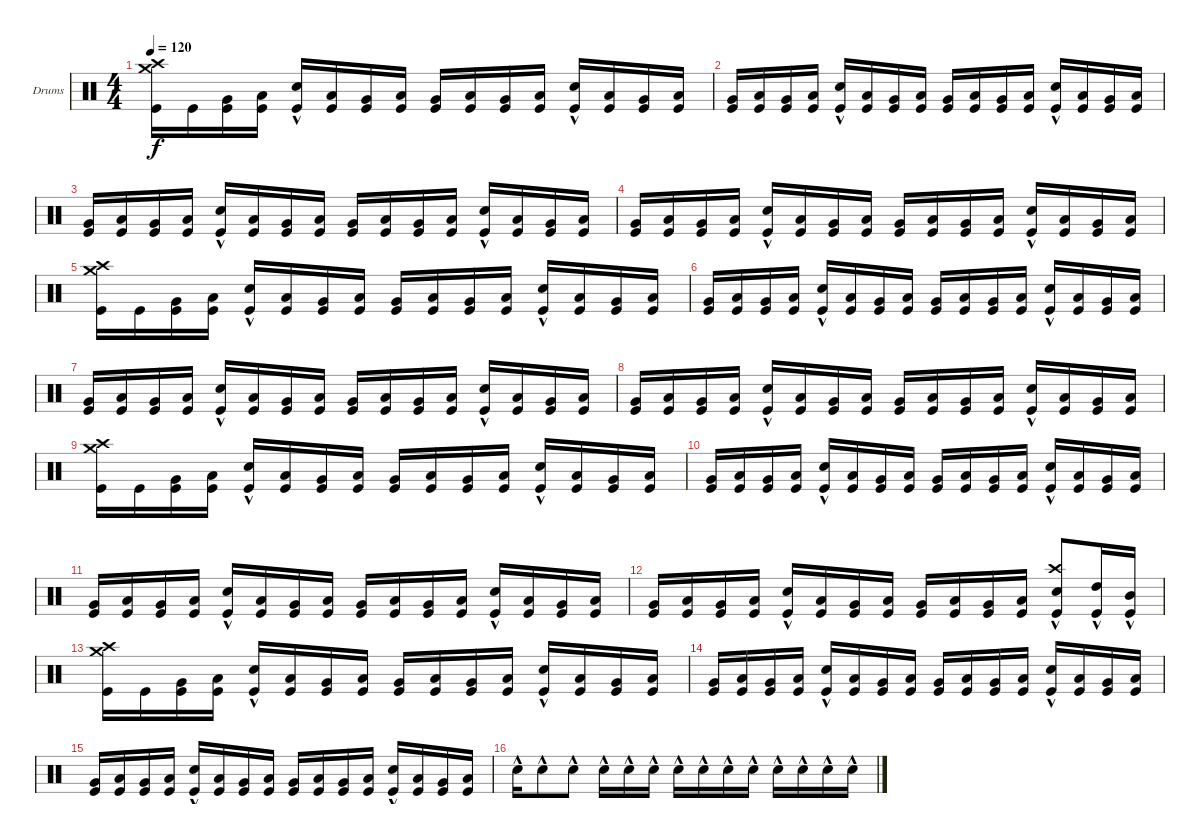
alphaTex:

\bracketExtendMode groupsimilarinstruments
\firstSystemTrackNameOrientation horizontal
\otherSystemsTrackNameOrientation horizontal
\track ("Drumkit" "Drums") {instrument percussion}
\staff {score}
\articulation defaults
\ts (4 4)
\tempo 120
\clef neutral
\scale
0.333333
\ks c
("Kick (hit)" "Crash medium (hit)" "Crash high (hit)").16{dy f} "Kick (hit)".16 ("Kick (hit)" "Very Low Tom (hit)").16 ("Kick (hit)" "Low Tom (hit)").16 ("Kick (hit)" "Snare (hit) 2"{hac}).16 ("Kick (hit)" "Low Tom (hit)").16 ("Kick (hit)" "Very Low Tom (hit)").16 ("Kick (hit)" "Low Tom (hit)").16 ("Kick (hit)" "Very Low Tom (hit)").16 ("Kick (hit)" "Low Tom (hit)").16 ("Kick (hit)" "Very Low Tom (hit)").16 ("Kick (hit)" "Low Tom (hit)").16 ("Kick (hit)" "Snare (hit) 2"{hac}).16 ("Kick (hit)" "Low Tom (hit)").16 ("Kick (hit)" "Very Low Tom (hit)").16 ("Kick (hit)" "Low Tom (hit)").16 |
\scale
0.333333 ("Kick (hit)" "Very Low Tom (hit)").16 ("Kick (hit)" "Low Tom (hit)").16 ("Kick (hit)" "Very Low Tom (hit)").16 ("Kick (hit)" "Low Tom (hit)").16 ("Kick (hit)" "Snare (hit) 2"{hac}).16 ("Kick (hit)" "Low Tom (hit)").16 ("Kick (hit)" "Very Low Tom (hit)").16 ("Kick (hit)" "Low Tom (hit)").16 ("Kick (hit)" "Very Low Tom (hit)").16 ("Kick (hit)" "Low Tom (hit)").16 ("Kick (hit)" "Very Low Tom (hit)").16 ("Kick (hit)" "Low Tom (hit)").16 ("Kick (hit)" "Snare (hit) 2"{hac}).16 ("Kick (hit)" "Low Tom (hit)").16 ("Kick (hit)" "Very Low Tom (hit)").16 ("Kick (hit)" "Low Tom (hit)").16 |
\scale
0.333333 ("Kick (hit)" "Very Low Tom (hit)").16 ("Kick (hit)" "Low Tom (hit)").16 ("Kick (hit)" "Very Low Tom (hit)").16 ("Kick (hit)" "Low Tom (hit)").16 ("Kick (hit)" "Snare (hit) 2"{hac}).16 ("Kick (hit)" "Low Tom (hit)").16 ("Kick (hit)" "Very Low Tom (hit)").16 ("Kick (hit)" "Low Tom (hit)").16 ("Kick (hit)" "Very Low Tom (hit)").16 ("Kick (hit)" "Low Tom (hit)").16 ("Kick (hit)" "Very Low Tom (hit)").16 ("Kick (hit)" "Low Tom (hit)").16 ("Kick (hit)" "Snare (hit) 2"{hac}).16 ("Kick (hit)" "Low Tom (hit)").16 ("Kick (hit)" "Very Low Tom (hit)").16 ("Kick (hit)" "Low Tom (hit)").16 |
\scale
0.333333 ("Kick (hit)" "Very Low Tom (hit)").16 ("Kick (hit)" "Low Tom (hit)").16 ("Kick (hit)" "Very Low Tom (hit)").16 ("Kick (hit)" "Low Tom (hit)").16 ("Kick (hit)" "Snare (hit) 2"{hac}).16 ("Kick (hit)" "Low Tom (hit)").16 ("Kick (hit)" "Very Low Tom (hit)").16 ("Kick (hit)" "Low Tom (hit)").16 ("Kick (hit)" "Very Low Tom (hit)").16 ("Kick (hit)" "Low Tom (hit)").16 ("Kick (hit)" "Very Low Tom (hit)").16 ("Kick (hit)" "Low Tom (hit)").16 ("Kick (hit)" "Snare (hit) 2"{hac}).16 ("Kick (hit)" "Low Tom (hit)").16 ("Kick (hit)" "Very Low Tom (hit)").16 ("Kick (hit)" "Low Tom (hit)").16 |
\scale
0.333333 ("Kick (hit)" "Crash medium (hit)" "Crash high (hit)").16 "Kick (hit)".16 ("Kick (hit)" "Very Low Tom (hit)").16 ("Kick (hit)" "Low Tom (hit)").16 ("Kick (hit)" "Snare (hit) 2"{hac}).16 ("Kick (hit)" "Low Tom (hit)").16 ("Kick (hit)" "Very Low Tom (hit)").16 ("Kick (hit)" "Low Tom (hit)").16 ("Kick (hit)" "Very Low Tom (hit)").16 ("Kick (hit)" "Low Tom (hit)").16 ("Kick (hit)" "Very Low Tom (hit)").16 ("Kick (hit)" "Low Tom (hit)").16 ("Kick (hit)" "Snare (hit) 2"{hac}).16 ("Kick (hit)" "Low Tom (hit)").16 ("Kick (hit)" "Very Low Tom (hit)").16 ("Kick (hit)" "Low Tom (hit)").16 |
\scale
0.333333 ("Kick (hit)" "Very Low Tom (hit)").16 ("Kick (hit)" "Low Tom (hit)").16 ("Kick (hit)" "Very Low Tom (hit)").16 ("Kick (hit)" "Low Tom (hit)").16 ("Kick (hit)" "Snare (hit) 2"{hac}).16 ("Kick (hit)" "Low Tom (hit)").16 ("Kick (hit)" "Very Low Tom (hit)").16 ("Kick (hit)" "Low Tom (hit)").16 ("Kick (hit)" "Very Low Tom (hit)").16 ("Kick (hit)" "Low Tom (hit)").16 ("Kick (hit)" "Very Low Tom (hit)").16 ("Kick (hit)" "Low Tom (hit)").16 ("Kick (hit)" "Snare (hit) 2"{hac}).16 ("Kick (hit)" "Low Tom (hit)").16 ("Kick (hit)" "Very Low Tom (hit)").16 ("Kick (hit)" "Low Tom (hit)").16 |
\scale
0.333333 ("Kick (hit)" "Very Low Tom (hit)").16 ("Kick (hit)" "Low Tom (hit)").16 ("Kick (hit)" "Very Low Tom (hit)").16 ("Kick (hit)" "Low Tom (hit)").16 ("Kick (hit)" "Snare (hit) 2"{hac}).16 ("Kick (hit)" "Low Tom (hit)").16 ("Kick (hit)" "Very Low Tom (hit)").16 ("Kick (hit)" "Low Tom (hit)").16 ("Kick (hit)" "Very Low Tom (hit)").16 ("Kick (hit)" "Low Tom (hit)").16 ("Kick (hit)" "Very Low Tom (hit)").16 ("Kick (hit)" "Low Tom (hit)").16 ("Kick (hit)" "Snare (hit) 2"{hac}).16 ("Kick (hit)" "Low Tom (hit)").16 ("Kick (hit)" "Very Low Tom (hit)").16 ("Kick (hit)" "Low Tom (hit)").16 |
\scale
0.333333 ("Kick (hit)" "Very Low Tom (hit)").16 ("Kick (hit)" "Low Tom (hit)").16 ("Kick (hit)" "Very Low Tom (hit)").16 ("Kick (hit)" "Low Tom (hit)").16 ("Kick (hit)" "Snare (hit) 2"{hac}).16 ("Kick (hit)" "Low Tom (hit)").16 ("Kick (hit)" "Very Low Tom (hit)").16 ("Kick (hit)" "Low Tom (hit)").16 ("Kick (hit)" "Very Low Tom (hit)").16 ("Kick (hit)" "Low Tom (hit)").16 ("Kick (hit)" "Very Low Tom (hit)").16 ("Kick (hit)" "Low Tom (hit)").16 ("Kick (hit)" "Snare (hit) 2"{hac}).16 ("Kick (hit)" "Low Tom (hit)").16 ("Kick (hit)" "Very Low Tom (hit)").16 ("Kick (hit)" "Low Tom (hit)").16 |
\scale
0.333333 ("Kick (hit)" "Crash medium (hit)" "Crash high (hit)").16 "Kick (hit)".16 ("Kick (hit)" "Very Low Tom (hit)").16 ("Kick (hit)" "Low Tom (hit)").16 ("Kick (hit)" "Snare (hit) 2"{hac}).16 ("Kick (hit)" "Low Tom (hit)").16 ("Kick (hit)" "Very Low Tom (hit)").16 ("Kick (hit)" "Low Tom (hit)").16 ("Kick (hit)" "Very Low Tom (hit)").16 ("Kick (hit)" "Low Tom (hit)").16 ("Kick (hit)" "Very Low Tom (hit)").16 ("Kick (hit)" "Low Tom (hit)").16 ("Kick (hit)" "Snare (hit) 2"{hac}).16 ("Kick (hit)" "Low Tom (hit)").16 ("Kick (hit)" "Very Low Tom (hit)").16 ("Kick (hit)" "Low Tom (hit)").16 |
\scale
0.333333 ("Kick (hit)" "Very Low Tom (hit)").16 ("Kick (hit)" "Low Tom (hit)").16 ("Kick (hit)" "Very Low Tom (hit)").16 ("Kick (hit)" "Low Tom (hit)").16 ("Kick (hit)" "Snare (hit) 2"{hac}).16 ("Kick (hit)" "Low Tom (hit)").16 ("Kick (hit)" "Very Low Tom (hit)").16 ("Kick (hit)" "Low Tom (hit)").16 ("Kick (hit)" "Very Low Tom (hit)").16 ("Kick (hit)" "Low Tom (hit)").16 ("Kick (hit)" "Very Low Tom (hit)").16 ("Kick (hit)" "Low Tom (hit)").16 ("Kick (hit)" "Snare (hit) 2"{hac}).16 ("Kick (hit)" "Low Tom (hit)").16 ("Kick (hit)" "Very Low Tom (hit)").16 ("Kick (hit)" "Low Tom (hit)").16 |
\scale
0.333333 ("Kick (hit)" "Very Low Tom (hit)").16 ("Kick (hit)" "Low Tom (hit)").16 ("Kick (hit)" "Very Low Tom (hit)").16 ("Kick (hit)" "Low Tom (hit)").16 ("Kick (hit)" "Snare (hit) 2"{hac}).16 ("Kick (hit)" "Low Tom (hit)").16 ("Kick (hit)" "Very Low Tom (hit)").16 ("Kick (hit)" "Low Tom (hit)").16 ("Kick (hit)" "Very Low Tom (hit)").16 ("Kick (hit)" "Low Tom (hit)").16 ("Kick (hit)" "Very Low Tom (hit)").16 ("Kick (hit)" "Low Tom (hit)").16 ("Kick (hit)" "Snare (hit) 2"{hac}).16 ("Kick (hit)" "Low Tom (hit)").16 ("Kick (hit)" "Very Low Tom (hit)").16 ("Kick (hit)" "Low Tom (hit)").16 |
\scale
0.333333 ("Kick (hit)" "Very Low Tom (hit)").16 ("Kick (hit)" "Low Tom (hit)").16 ("Kick (hit)" "Very Low Tom (hit)").16 ("Kick (hit)" "Low Tom (hit)").16 ("Kick (hit)" "Snare (hit) 2"{hac}).16 ("Kick (hit)" "Low Tom (hit)").16 ("Kick (hit)" "Very Low Tom (hit)").16 ("Kick (hit)" "Low Tom (hit)").16 ("Kick (hit)" "Very Low Tom (hit)").16 ("Kick (hit)" "Low Tom (hit)").16 ("Kick (hit)" "Very Low Tom (hit)").16 ("Kick (hit)" "Low Tom (hit)").16 ("Kick (hit)" "Snare (hit) 2"{hac} "Crash high (hit)").8 ("Kick (hit)" "High Tom (hit)"{hac}).16 ("Kick (hit)" "Mid Tom (hit)"{hac}).16 |
\scale
0.333333 ("Kick (hit)" "Crash medium (hit)" "Crash high (hit)").16 "Kick (hit)".16 ("Kick (hit)" "Very Low Tom (hit)").16 ("Kick (hit)" "Low Tom (hit)").16 ("Kick (hit)" "Snare (hit) 2"{hac}).16 ("Kick (hit)" "Low Tom (hit)").16 ("Kick (hit)" "Very Low Tom (hit)").16 ("Kick (hit)" "Low Tom (hit)").16 ("Kick (hit)" "Very Low Tom (hit)").16 ("Kick (hit)" "Low Tom (hit)").16 ("Kick (hit)" "Very Low Tom (hit)").16 ("Kick (hit)" "Low Tom (hit)").16 ("Kick (hit)" "Snare (hit) 2"{hac}).16 ("Kick (hit)" "Low Tom (hit)").16 ("Kick (hit)" "Very Low Tom (hit)").16 ("Kick (hit)" "Low Tom (hit)").16 |
\scale
0.333333 ("Kick (hit)" "Very Low Tom (hit)").16 ("Kick (hit)" "Low Tom (hit)").16 ("Kick (hit)" "Very Low Tom (hit)").16 ("Kick (hit)" "Low Tom (hit)").16 ("Kick (hit)" "Snare (hit) 2"{hac}).16 ("Kick (hit)" "Low Tom (hit)").16 ("Kick (hit)" "Very Low Tom (hit)").16 ("Kick (hit)" "Low Tom (hit)").16 ("Kick (hit)" "Very Low Tom (hit)").16 ("Kick (hit)" "Low Tom (hit)").16 ("Kick (hit)" "Very Low Tom (hit)").16 ("Kick (hit)" "Low Tom (hit)").16 ("Kick (hit)" "Snare (hit) 2"{hac}).16 ("Kick (hit)" "Low Tom (hit)").16 ("Kick (hit)" "Very Low Tom (hit)").16 ("Kick (hit)" "Low Tom (hit)").16 |
\scale
0.333333 ("Kick (hit)" "Very Low Tom (hit)").16 ("Kick (hit)" "Low Tom (hit)").16 ("Kick (hit)" "Very Low Tom (hit)").16 ("Kick (hit)" "Low Tom (hit)").16 ("Kick (hit)" "Snare (hit) 2"{hac}).16 ("Kick (hit)" "Low Tom (hit)").16 ("Kick (hit)" "Very Low Tom (hit)").16 ("Kick (hit)" "Low Tom (hit)").16 ("Kick (hit)" "Very Low Tom (hit)").16 ("Kick (hit)" "Low Tom (hit)").16 ("Kick (hit)" "Very Low Tom (hit)").16 ("Kick (hit)" "Low Tom (hit)").16 ("Kick (hit)" "Snare (hit) 2"{hac}).16 ("Kick (hit)" "Low Tom (hit)").16 ("Kick (hit)" "Very Low Tom (hit)").16 ("Kick (hit)" "Low Tom (hit)").16 |
\scale
0.333333 "Snare (hit) 2"{hac}.16 "Snare (hit) 2"{hac}.8 "Snare (hit) 2"{hac}.8 "Snare (hit) 2"{hac}.16 "Snare (hit) 2"{hac}.16 "Snare (hit) 2"{hac}.16 "Snare (hit) 2"{hac}.16 "Snare (hit) 2"{hac}.16 "Snare (hit) 2"{hac}.16 "Snare (hit) 2"{hac}.16 "Snare (hit) 2"{hac}.16 "Snare (hit) 2"{hac}.16 "Snare (hit) 2"{hac}.16 "Snare (hit) 2"{hac}.16
